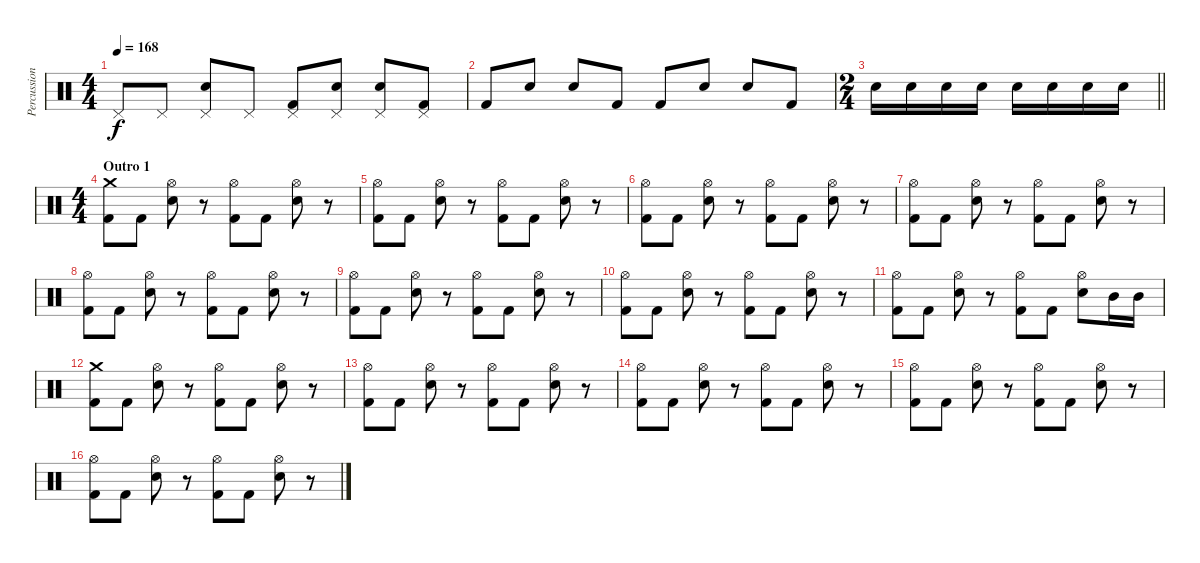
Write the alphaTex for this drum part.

\track ("Percussion" "Percussion") {instrument percussion}
\staff {score}
\articulation defaults
\ts (4 4)
\tempo 168
\clef neutral
\ks c "Pedal Hi-Hat (hit)".8{dy f} "Pedal Hi-Hat (hit)".8
("Pedal Hi-Hat (hit)" "Snare (hit) 2").8 "Pedal Hi-Hat (hit)".8 ("Pedal Hi-Hat (hit)" "Kick (hit) 2").8 ("Pedal Hi-Hat (hit)" "Snare (hit) 2").8 ("Pedal Hi-Hat (hit)" "Snare (hit) 2").8 ("Pedal Hi-Hat (hit)" "Kick (hit) 2").8 |
"Kick (hit) 2".8 "Snare (hit) 2".8 "Snare (hit) 2".8 "Kick (hit) 2".8 "Kick (hit) 2".8 "Snare (hit) 2".8 "Snare (hit) 2".8 "Kick (hit) 2".8 |
\ts (2 4)
\barLineRight lightlight "Snare (hit) 2".16 "Snare (hit) 2".16 "Snare (hit) 2".16 "Snare (hit) 2".16 "Snare (hit) 2".16 "Snare (hit) 2".16 "Snare (hit) 2".16 "Snare (hit) 2".16
|
\ts (4 4)
\section ("" "Outro 1")
("Crash medium (hit)" "Kick (hit) 2").8 "Kick (hit) 2".8 ("Hi-Hat (open)" "Snare (hit) 2").8 r.8 ("Hi-Hat (open)" "Kick (hit) 2").8 "Kick (hit) 2".8 ("Hi-Hat (open)" "Snare (hit) 2").8 r.8 |
("Hi-Hat (open)" "Kick (hit) 2").8 "Kick (hit) 2".8 ("Hi-Hat (open)" "Snare (hit) 2").8 r.8 ("Hi-Hat (open)" "Kick (hit) 2").8 "Kick (hit) 2".8 ("Hi-Hat (open)" "Snare (hit) 2").8 r.8 |
("Hi-Hat (open)" "Kick (hit) 2").8 "Kick (hit) 2".8 ("Hi-Hat (open)" "Snare (hit) 2").8 r.8 ("Hi-Hat (open)" "Kick (hit) 2").8 "Kick (hit) 2".8 ("Hi-Hat (open)" "Snare (hit) 2").8 r.8 |
("Hi-Hat (open)" "Kick (hit) 2").8 "Kick (hit) 2".8 ("Hi-Hat (open)" "Snare (hit) 2").8 r.8 ("Hi-Hat (open)" "Kick (hit) 2").8 "Kick (hit) 2".8 ("Hi-Hat (open)" "Snare (hit) 2").8 r.8 |
("Hi-Hat (open)" "Kick (hit) 2").8 "Kick (hit) 2".8 ("Hi-Hat (open)" "Snare (hit) 2").8 r.8 ("Hi-Hat (open)" "Kick (hit) 2").8 "Kick (hit) 2".8 ("Hi-Hat (open)" "Snare (hit) 2").8 r.8 |
("Hi-Hat (open)" "Kick (hit) 2").8 "Kick (hit) 2".8 ("Hi-Hat (open)" "Snare (hit) 2").8 r.8 ("Hi-Hat (open)" "Kick (hit) 2").8 "Kick (hit) 2".8 ("Hi-Hat (open)" "Snare (hit) 2").8 r.8 |
("Hi-Hat (open)" "Kick (hit) 2").8 "Kick (hit) 2".8 ("Hi-Hat (open)" "Snare (hit) 2").8 r.8 ("Hi-Hat (open)" "Kick (hit) 2").8 "Kick (hit) 2".8 ("Hi-Hat (open)" "Snare (hit) 2").8 r.8 |
("Hi-Hat (open)" "Kick (hit) 2").8 "Kick (hit) 2".8 ("Hi-Hat (open)" "Snare (hit) 2").8 r.8 ("Hi-Hat (open)" "Kick (hit) 2").8 "Kick (hit) 2".8 ("Hi-Hat (open)" "Snare (hit) 2").8 "Mid Tom (hit)".16 "Mid Tom (hit)".16 |
("Crash medium (hit)" "Kick (hit) 2").8 "Kick (hit) 2".8 ("Hi-Hat (open)" "Snare (hit) 2").8 r.8 ("Hi-Hat (open)" "Kick (hit) 2").8 "Kick (hit) 2".8 ("Hi-Hat (open)" "Snare (hit) 2").8 r.8 |
("Hi-Hat (open)" "Kick (hit) 2").8 "Kick (hit) 2".8 ("Hi-Hat (open)" "Snare (hit) 2").8 r.8 ("Hi-Hat (open)" "Kick (hit) 2").8 "Kick (hit) 2".8 ("Hi-Hat (open)" "Snare (hit) 2").8 r.8 |
("Hi-Hat (open)" "Kick (hit) 2").8 "Kick (hit) 2".8 ("Hi-Hat (open)" "Snare (hit) 2").8 r.8 ("Hi-Hat (open)" "Kick (hit) 2").8 "Kick (hit) 2".8 ("Hi-Hat (open)" "Snare (hit) 2").8 r.8 |
("Hi-Hat (open)" "Kick (hit) 2").8 "Kick (hit) 2".8 ("Hi-Hat (open)" "Snare (hit) 2").8 r.8 ("Hi-Hat (open)" "Kick (hit) 2").8 "Kick (hit) 2".8 ("Hi-Hat (open)" "Snare (hit) 2").8 r.8 |
("Hi-Hat (open)" "Kick (hit) 2").8 "Kick (hit) 2".8 ("Hi-Hat (open)" "Snare (hit) 2").8 r.8 ("Hi-Hat (open)" "Kick (hit) 2").8 "Kick (hit) 2".8 ("Hi-Hat (open)" "Snare (hit) 2").8 r.8
